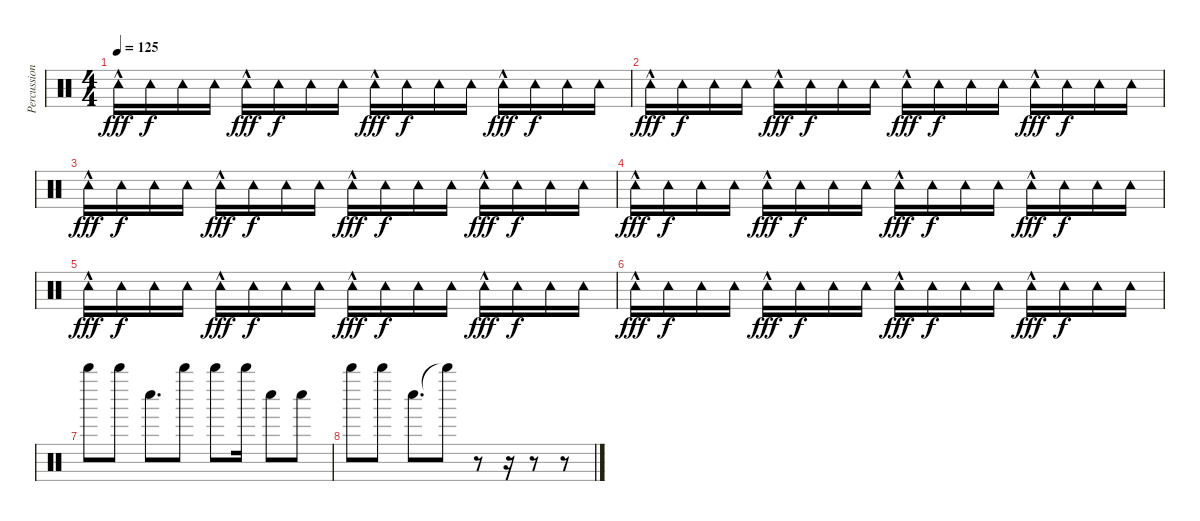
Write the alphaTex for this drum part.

\track ("Percussion" "Percussion") {instrument percussion}
\staff {score}
\articulation defaults
\ts (4 4)
\tempo 125
\clef neutral
\ks c "Tambourine (hit)"{hac}.16{dy fff} "Tambourine (hit)".16{dy f} "Tambourine (hit)".16 "Tambourine (hit)".16 "Tambourine (hit)"{hac}.16{dy fff} "Tambourine (hit)".16{dy f} "Tambourine (hit)".16 "Tambourine (hit)".16 "Tambourine (hit)"{hac}.16{dy fff} "Tambourine (hit)".16{dy f} "Tambourine (hit)".16 "Tambourine (hit)".16 "Tambourine (hit)"{hac}.16{dy fff} "Tambourine (hit)".16{dy f} "Tambourine (hit)".16 "Tambourine (hit)".16
|
"Tambourine (hit)"{hac}.16{dy fff} "Tambourine (hit)".16{dy f} "Tambourine (hit)".16 "Tambourine (hit)".16 "Tambourine (hit)"{hac}.16{dy fff} "Tambourine (hit)".16{dy f} "Tambourine (hit)".16 "Tambourine (hit)".16 "Tambourine (hit)"{hac}.16{dy fff} "Tambourine (hit)".16{dy f} "Tambourine (hit)".16 "Tambourine (hit)".16 "Tambourine (hit)"{hac}.16{dy fff} "Tambourine (hit)".16{dy f} "Tambourine (hit)".16 "Tambourine (hit)".16 |
"Tambourine (hit)"{hac}.16{dy fff} "Tambourine (hit)".16{dy f} "Tambourine (hit)".16 "Tambourine (hit)".16 "Tambourine (hit)"{hac}.16{dy fff} "Tambourine (hit)".16{dy f} "Tambourine (hit)".16 "Tambourine (hit)".16 "Tambourine (hit)"{hac}.16{dy fff} "Tambourine (hit)".16{dy f} "Tambourine (hit)".16 "Tambourine (hit)".16 "Tambourine (hit)"{hac}.16{dy fff} "Tambourine (hit)".16{dy f} "Tambourine (hit)".16 "Tambourine (hit)".16 |
"Tambourine (hit)"{hac}.16{dy fff} "Tambourine (hit)".16{dy f} "Tambourine (hit)".16 "Tambourine (hit)".16 "Tambourine (hit)"{hac}.16{dy fff} "Tambourine (hit)".16{dy f} "Tambourine (hit)".16 "Tambourine (hit)".16 "Tambourine (hit)"{hac}.16{dy fff} "Tambourine (hit)".16{dy f} "Tambourine (hit)".16 "Tambourine (hit)".16 "Tambourine (hit)"{hac}.16{dy fff} "Tambourine (hit)".16{dy f} "Tambourine (hit)".16 "Tambourine (hit)".16 |
"Tambourine (hit)"{hac}.16{dy fff} "Tambourine (hit)".16{dy f} "Tambourine (hit)".16 "Tambourine (hit)".16 "Tambourine (hit)"{hac}.16{dy fff} "Tambourine (hit)".16{dy f} "Tambourine (hit)".16 "Tambourine (hit)".16 "Tambourine (hit)"{hac}.16{dy fff} "Tambourine (hit)".16{dy f} "Tambourine (hit)".16 "Tambourine (hit)".16 "Tambourine (hit)"{hac}.16{dy fff} "Tambourine (hit)".16{dy f} "Tambourine (hit)".16 "Tambourine (hit)".16 |
"Tambourine (hit)"{hac}.16{dy fff} "Tambourine (hit)".16{dy f} "Tambourine (hit)".16 "Tambourine (hit)".16 "Tambourine (hit)"{hac}.16{dy fff} "Tambourine (hit)".16{dy f} "Tambourine (hit)".16 "Tambourine (hit)".16 "Tambourine (hit)"{hac}.16{dy fff} "Tambourine (hit)".16{dy f} "Tambourine (hit)".16 "Tambourine (hit)".16 "Tambourine (hit)"{hac}.16{dy fff} "Tambourine (hit)".16{dy f} "Tambourine (hit)".16 "Tambourine (hit)".16 |
"Whistle high (hit)".8 "Whistle high (hit)".8 "Whistle low (hit)".8{d} "Whistle high (hit)".8 "Whistle high (hit)".8 "Whistle high (hit)".16 "Whistle low (hit)".8 "Whistle low (hit)".8 |
"Whistle high (hit)".8 "Whistle high (hit)".8 "Whistle low (hit)".8{d} "Whistle high (hit)"{t}.8 r.8 r.16 r.8 r.8
